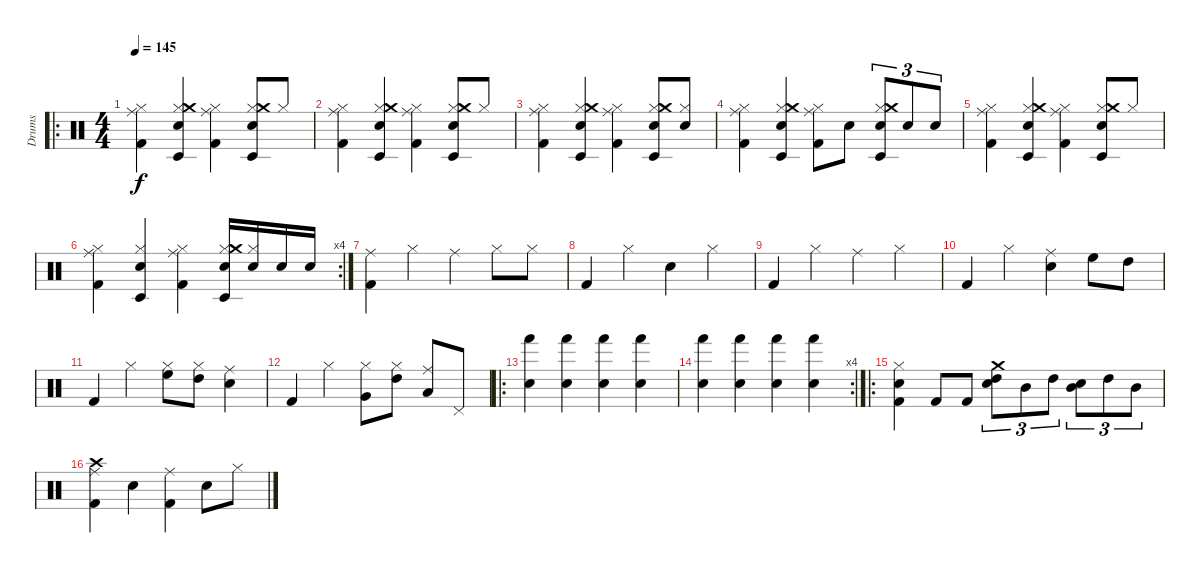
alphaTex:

\track ("Drums" "Drums") {instrument percussion}
\staff {score}
\articulation defaults
\ro
\ts (4 4)
\tempo 145
\clef neutral
\ks c
("Hi-Hat (closed)" "Ride (middle)" "Kick (hit) 2").4{dy f} ("Hi-Hat (closed)" "Electric Snare (hit)" "Crash medium (hit)" "Timbale low (hit)").4 ("Hi-Hat (closed)" "Ride (middle)" "Kick (hit) 2").4 ("Hi-Hat (closed)" "Electric Snare (hit)" "Crash medium (hit)" "Timbale low (hit)").8 "Hi-Hat (closed)".8 |
("Hi-Hat (closed)" "Ride (middle)" "Kick (hit) 2").4 ("Hi-Hat (closed)" "Electric Snare (hit)" "Crash medium (hit)" "Timbale low (hit)").4 ("Hi-Hat (closed)" "Ride (middle)" "Kick (hit) 2").4 ("Hi-Hat (closed)" "Electric Snare (hit)" "Crash medium (hit)" "Timbale low (hit)").8 "Hi-Hat (closed)".8 |
("Hi-Hat (closed)" "Ride (middle)" "Kick (hit) 2").4 ("Hi-Hat (closed)" "Electric Snare (hit)" "Crash medium (hit)" "Timbale low (hit)").4 ("Hi-Hat (closed)" "Ride (middle)" "Kick (hit) 2").4 ("Hi-Hat (closed)" "Electric Snare (hit)" "Crash medium (hit)" "Timbale low (hit)").8 ("Hi-Hat (closed)" "Electric Snare (hit)").8 |
("Hi-Hat (closed)" "Ride (middle)" "Kick (hit) 2").4 ("Hi-Hat (closed)" "Electric Snare (hit)" "Crash medium (hit)" "Timbale low (hit)").4 ("Hi-Hat (closed)" "Ride (middle)" "Kick (hit) 2").8 "Electric Snare (hit)".8 ("Hi-Hat (closed)" "Electric Snare (hit)" "Crash medium (hit)" "Timbale low (hit)").8{tu (3 2)} "Electric Snare (hit)".8{tu (3 2)} "Electric Snare (hit)".8{tu (3 2)} |
("Hi-Hat (closed)" "Ride (middle)" "Kick (hit) 2").4 ("Hi-Hat (closed)" "Electric Snare (hit)" "Crash medium (hit)" "Timbale low (hit)").4 ("Hi-Hat (closed)" "Ride (middle)" "Kick (hit) 2").4 ("Hi-Hat (closed)" "Electric Snare (hit)" "Crash medium (hit)" "Timbale low (hit)").8 "Hi-Hat (closed)".8 |
\rc 4
("Hi-Hat (closed)" "Ride (middle)" "Kick (hit) 2").4 ("Hi-Hat (closed)" "Electric Snare (hit)" "Timbale low (hit)").4 ("Hi-Hat (closed)" "Ride (middle)" "Kick (hit) 2").4 ("Hi-Hat (closed)" "Electric Snare (hit)" "Crash medium (hit)" "Timbale low (hit)").16 ("Hi-Hat (closed)" "Electric Snare (hit)").16 "Electric Snare (hit)".16 "Electric Snare (hit)".16 |
("Ride (middle)" "Kick (hit) 2").4 "Hi-Hat (closed)".4 "Ride (middle)".4 "Hi-Hat (closed)".8 "Hi-Hat (closed)".8 |
"Kick (hit) 2".4 "Hi-Hat (closed)".4 "Electric Snare (hit)".4 "Hi-Hat (closed)".4 |
"Kick (hit) 2".4 "Hi-Hat (closed)".4 "Ride (middle)".4 "Hi-Hat (closed)".4 |
"Kick (hit) 2".4 "Hi-Hat (closed)".4 ("Electric Snare (hit)" "Ride (middle)").4 "High Floor Tom (hit)".8 "High Tom (hit)".8 |
"Kick (hit) 2".4 "Hi-Hat (closed)".4 ("Hi-Hat (closed)" "High Floor Tom (hit)").8 ("Hi-Hat (closed)" "High Tom (hit)").8 ("Ride (middle)" "Electric Snare (hit)").4 |
"Kick (hit) 2".4 "Hi-Hat (closed)".4 ("Hi-Hat (closed)" "Very Low Tom (hit)").8 ("Hi-Hat (closed)" "High Tom (hit)").8 ("Ride (middle)" "Low Tom (hit)").8 "Pedal Hi-Hat (hit)".8 |
\ro
("Electric Snare (hit)" "Hand (hit)").4 ("Electric Snare (hit)" "Hand (hit)").4 ("Electric Snare (hit)" "Hand (hit)").4 ("Electric Snare (hit)" "Hand (hit)").4 |
\rc 4
("Electric Snare (hit)" "Hand (hit)").4 ("Electric Snare (hit)" "Hand (hit)").4 ("Electric Snare (hit)" "Hand (hit)").4 ("Electric Snare (hit)" "Hand (hit)").4 |
\ro
("Hi-Hat (closed)" "Electric Snare (hit)" "Kick (hit) 2").4 "Kick (hit) 2".8 "Kick (hit) 2".8 ("Electric Snare (hit)" "High Tom (hit)" "Crash medium (hit)").8{tu (3 2)} "Mid Tom (hit)".8{tu (3 2)} "High Tom (hit)".8{tu (3 2)} ("Electric Snare (hit)" "Mid Tom (hit)").8{tu (3 2)} "High Tom (hit)".8{tu (3 2)} "Mid Tom (hit)".8{tu (3 2)} |
("Ride (middle)" "Crash high (hit)" "Kick (hit) 2").4 "Electric Snare (hit)".4 ("Ride (middle)" "Kick (hit) 2").4 "Electric Snare (hit)".8 "Hi-Hat (closed)".8
